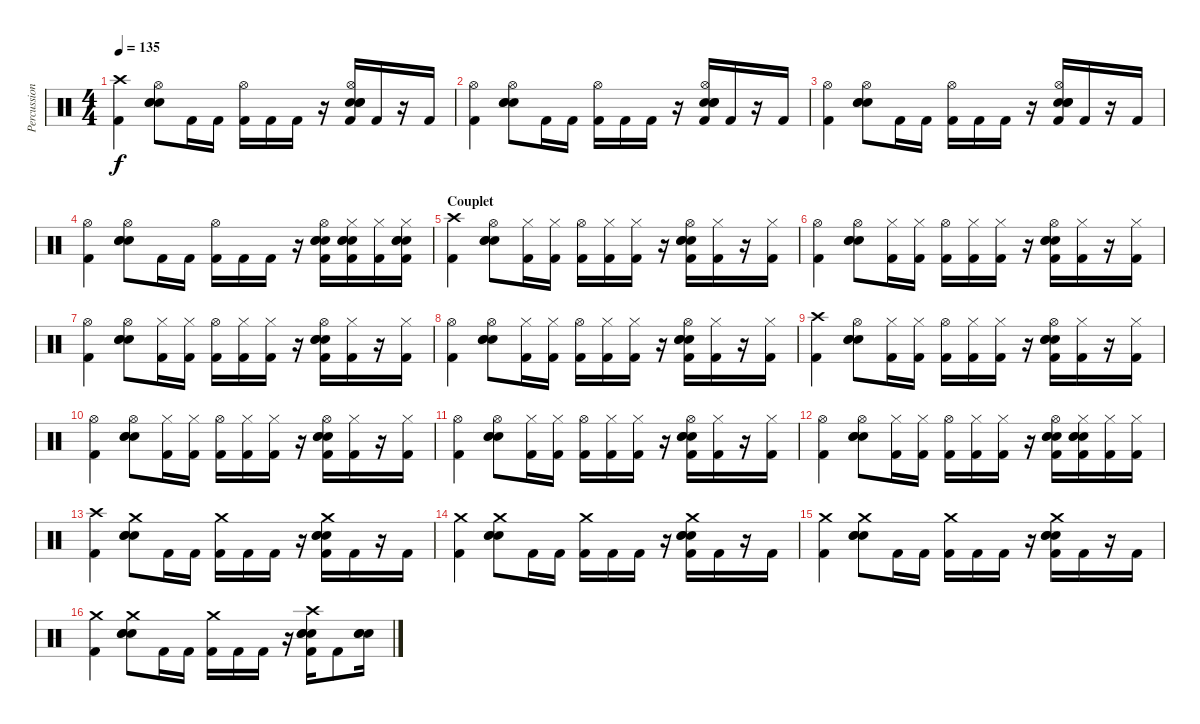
\track ("Percussions" "Percussion") {instrument percussion}
\staff {score}
\articulation defaults
\ts (4 4)
\tempo 135
\clef neutral
\ks c
("Crash high (hit)" "Kick (hit) 2").4{dy f} ("Hi-Hat (open)" "Snare (hit) 2" "Electric Snare (hit)" "Electric Snare (hit)").8 "Kick (hit) 2".16 "Kick (hit) 2".16 ("Hi-Hat (open)" "Kick (hit) 2").16 "Kick (hit) 2".16 "Kick (hit) 2".16 r.16 ("Hi-Hat (open)" "Kick (hit) 2" "Snare (hit) 2" "Electric Snare (hit)" "Electric Snare (hit)").16 "Kick (hit) 2".16 r.16 "Kick (hit) 2".16 |
("Hi-Hat (open)" "Kick (hit) 2").4 ("Hi-Hat (open)" "Snare (hit) 2" "Electric Snare (hit)" "Electric Snare (hit)").8 "Kick (hit) 2".16 "Kick (hit) 2".16 ("Hi-Hat (open)" "Kick (hit) 2").16 "Kick (hit) 2".16 "Kick (hit) 2".16 r.16 ("Hi-Hat (open)" "Kick (hit) 2" "Snare (hit) 2" "Electric Snare (hit)" "Electric Snare (hit)").16 "Kick (hit) 2".16 r.16 "Kick (hit) 2".16 |
("Hi-Hat (open)" "Kick (hit) 2").4 ("Hi-Hat (open)" "Snare (hit) 2" "Electric Snare (hit)" "Electric Snare (hit)").8 "Kick (hit) 2".16 "Kick (hit) 2".16 ("Hi-Hat (open)" "Kick (hit) 2").16 "Kick (hit) 2".16 "Kick (hit) 2".16 r.16 ("Hi-Hat (open)" "Kick (hit) 2" "Snare (hit) 2" "Electric Snare (hit)" "Electric Snare (hit)").16 "Kick (hit) 2".16 r.16 "Kick (hit) 2".16 |
("Hi-Hat (open)" "Kick (hit) 2").4 ("Hi-Hat (open)" "Snare (hit) 2" "Electric Snare (hit)" "Electric Snare (hit)").8 "Kick (hit) 2".16 "Kick (hit) 2".16 ("Hi-Hat (open)" "Kick (hit) 2").16 "Kick (hit) 2".16 "Kick (hit) 2".16 r.16 ("Hi-Hat (open)" "Kick (hit) 2" "Snare (hit) 2" "Electric Snare (hit)" "Electric Snare (hit)").16 ("Hi-Hat (closed)" "Kick (hit) 2" "Snare (hit) 2" "Electric Snare (hit)" "Electric Snare (hit)").16 ("Hi-Hat (closed)" "Kick (hit) 2").16 ("Hi-Hat (closed)" "Kick (hit) 2" "Snare (hit) 2" "Electric Snare (hit)" "Electric Snare (hit)").16 |
\section ("" "Couplet")
("Crash high (hit)" "Kick (hit) 2").4 ("Hi-Hat (open)" "Snare (hit) 2" "Electric Snare (hit)" "Electric Snare (hit)").8 ("Hi-Hat (closed)" "Kick (hit) 2").16 ("Hi-Hat (closed)" "Kick (hit) 2").16 ("Hi-Hat (open)" "Kick (hit) 2").16 ("Hi-Hat (closed)" "Kick (hit) 2").16 ("Hi-Hat (closed)" "Kick (hit) 2").16 r.16 ("Hi-Hat (open)" "Kick (hit) 2" "Snare (hit) 2" "Electric Snare (hit)" "Electric Snare (hit)").16 ("Hi-Hat (closed)" "Kick (hit) 2").16 r.16 ("Hi-Hat (closed)" "Kick (hit) 2").16 |
("Hi-Hat (open)" "Kick (hit) 2").4 ("Hi-Hat (open)" "Snare (hit) 2" "Electric Snare (hit)" "Electric Snare (hit)").8 ("Hi-Hat (closed)" "Kick (hit) 2").16 ("Hi-Hat (closed)" "Kick (hit) 2").16 ("Hi-Hat (open)" "Kick (hit) 2").16 ("Hi-Hat (closed)" "Kick (hit) 2").16 ("Hi-Hat (closed)" "Kick (hit) 2").16 r.16 ("Hi-Hat (open)" "Kick (hit) 2" "Snare (hit) 2" "Electric Snare (hit)" "Electric Snare (hit)").16 ("Hi-Hat (closed)" "Kick (hit) 2").16 r.16 ("Hi-Hat (closed)" "Kick (hit) 2").16 |
("Hi-Hat (open)" "Kick (hit) 2").4 ("Hi-Hat (open)" "Snare (hit) 2" "Electric Snare (hit)" "Electric Snare (hit)").8 ("Hi-Hat (closed)" "Kick (hit) 2").16 ("Hi-Hat (closed)" "Kick (hit) 2").16 ("Hi-Hat (open)" "Kick (hit) 2").16 ("Hi-Hat (closed)" "Kick (hit) 2").16 ("Hi-Hat (closed)" "Kick (hit) 2").16 r.16 ("Hi-Hat (open)" "Kick (hit) 2" "Snare (hit) 2" "Electric Snare (hit)" "Electric Snare (hit)").16 ("Hi-Hat (closed)" "Kick (hit) 2").16 r.16 ("Hi-Hat (closed)" "Kick (hit) 2").16 |
("Hi-Hat (open)" "Kick (hit) 2").4 ("Hi-Hat (open)" "Snare (hit) 2" "Electric Snare (hit)" "Electric Snare (hit)").8 ("Hi-Hat (closed)" "Kick (hit) 2").16 ("Hi-Hat (closed)" "Kick (hit) 2").16 ("Hi-Hat (open)" "Kick (hit) 2").16 ("Hi-Hat (closed)" "Kick (hit) 2").16 ("Hi-Hat (closed)" "Kick (hit) 2").16 r.16 ("Hi-Hat (open)" "Kick (hit) 2" "Snare (hit) 2" "Electric Snare (hit)" "Electric Snare (hit)").16 ("Hi-Hat (closed)" "Kick (hit) 2").16 r.16 ("Hi-Hat (closed)" "Kick (hit) 2").16 |
("Crash high (hit)" "Kick (hit) 2").4 ("Hi-Hat (open)" "Snare (hit) 2" "Electric Snare (hit)" "Electric Snare (hit)").8 ("Hi-Hat (closed)" "Kick (hit) 2").16 ("Hi-Hat (closed)" "Kick (hit) 2").16 ("Hi-Hat (open)" "Kick (hit) 2").16 ("Hi-Hat (closed)" "Kick (hit) 2").16 ("Hi-Hat (closed)" "Kick (hit) 2").16 r.16 ("Hi-Hat (open)" "Kick (hit) 2" "Snare (hit) 2" "Electric Snare (hit)" "Electric Snare (hit)").16 ("Hi-Hat (closed)" "Kick (hit) 2").16 r.16 ("Hi-Hat (closed)" "Kick (hit) 2").16 |
("Hi-Hat (open)" "Kick (hit) 2").4 ("Hi-Hat (open)" "Snare (hit) 2" "Electric Snare (hit)" "Electric Snare (hit)").8 ("Hi-Hat (closed)" "Kick (hit) 2").16 ("Hi-Hat (closed)" "Kick (hit) 2").16 ("Hi-Hat (open)" "Kick (hit) 2").16 ("Hi-Hat (closed)" "Kick (hit) 2").16 ("Hi-Hat (closed)" "Kick (hit) 2").16 r.16 ("Hi-Hat (open)" "Kick (hit) 2" "Snare (hit) 2" "Electric Snare (hit)" "Electric Snare (hit)").16 ("Hi-Hat (closed)" "Kick (hit) 2").16 r.16 ("Hi-Hat (closed)" "Kick (hit) 2").16 |
("Hi-Hat (open)" "Kick (hit) 2").4 ("Hi-Hat (open)" "Snare (hit) 2" "Electric Snare (hit)" "Electric Snare (hit)").8 ("Hi-Hat (closed)" "Kick (hit) 2").16 ("Hi-Hat (closed)" "Kick (hit) 2").16 ("Hi-Hat (open)" "Kick (hit) 2").16 ("Hi-Hat (closed)" "Kick (hit) 2").16 ("Hi-Hat (closed)" "Kick (hit) 2").16 r.16 ("Hi-Hat (open)" "Kick (hit) 2" "Snare (hit) 2" "Electric Snare (hit)" "Electric Snare (hit)").16 ("Hi-Hat (closed)" "Kick (hit) 2").16 r.16 ("Hi-Hat (closed)" "Kick (hit) 2").16 |
("Hi-Hat (open)" "Kick (hit) 2").4 ("Hi-Hat (open)" "Snare (hit) 2" "Electric Snare (hit)" "Electric Snare (hit)").8 ("Hi-Hat (closed)" "Kick (hit) 2").16 ("Hi-Hat (closed)" "Kick (hit) 2").16 ("Hi-Hat (open)" "Kick (hit) 2").16 ("Hi-Hat (closed)" "Kick (hit) 2").16 ("Hi-Hat (closed)" "Kick (hit) 2").16 r.16 ("Hi-Hat (open)" "Kick (hit) 2" "Snare (hit) 2" "Electric Snare (hit)" "Electric Snare (hit)").16 ("Hi-Hat (closed)" "Kick (hit) 2" "Snare (hit) 2" "Electric Snare (hit)" "Electric Snare (hit)").16 ("Hi-Hat (closed)" "Kick (hit) 2").16 ("Hi-Hat (closed)" "Kick (hit) 2").16 |
("Crash high (hit)" "Kick (hit) 2").4 ("Crash medium (hit)" "Snare (hit) 2" "Electric Snare (hit)" "Electric Snare (hit)").8 "Kick (hit) 2".16 "Kick (hit) 2".16 ("Crash medium (hit)" "Kick (hit) 2").16 "Kick (hit) 2".16 "Kick (hit) 2".16 r.16 ("Crash medium (hit)" "Kick (hit) 2" "Snare (hit) 2" "Electric Snare (hit)" "Electric Snare (hit)").16 "Kick (hit) 2".16 r.16 "Kick (hit) 2".16 |
("Crash medium (hit)" "Kick (hit) 2").4 ("Crash medium (hit)" "Snare (hit) 2" "Electric Snare (hit)" "Electric Snare (hit)").8 "Kick (hit) 2".16 "Kick (hit) 2".16 ("Crash medium (hit)" "Kick (hit) 2").16 "Kick (hit) 2".16 "Kick (hit) 2".16 r.16 ("Crash medium (hit)" "Kick (hit) 2" "Snare (hit) 2" "Electric Snare (hit)" "Electric Snare (hit)").16 "Kick (hit) 2".16 r.16 "Kick (hit) 2".16 |
("Crash medium (hit)" "Kick (hit) 2").4 ("Crash medium (hit)" "Snare (hit) 2" "Electric Snare (hit)" "Electric Snare (hit)").8 "Kick (hit) 2".16 "Kick (hit) 2".16 ("Crash medium (hit)" "Kick (hit) 2").16 "Kick (hit) 2".16 "Kick (hit) 2".16 r.16 ("Crash medium (hit)" "Kick (hit) 2" "Snare (hit) 2" "Electric Snare (hit)" "Electric Snare (hit)").16 "Kick (hit) 2".16 r.16 "Kick (hit) 2".16 |
("Crash medium (hit)" "Kick (hit) 2").4 ("Crash medium (hit)" "Snare (hit) 2" "Electric Snare (hit)" "Electric Snare (hit)").8 "Kick (hit) 2".16 "Kick (hit) 2".16 ("Crash medium (hit)" "Kick (hit) 2").16 "Kick (hit) 2".16 "Kick (hit) 2".16 r.16 ("Crash high (hit)" "Kick (hit) 2" "Snare (hit) 2" "Electric Snare (hit)" "Electric Snare (hit)").16 "Kick (hit) 2".8 ("Snare (hit) 2" "Electric Snare (hit)" "Electric Snare (hit)").16
